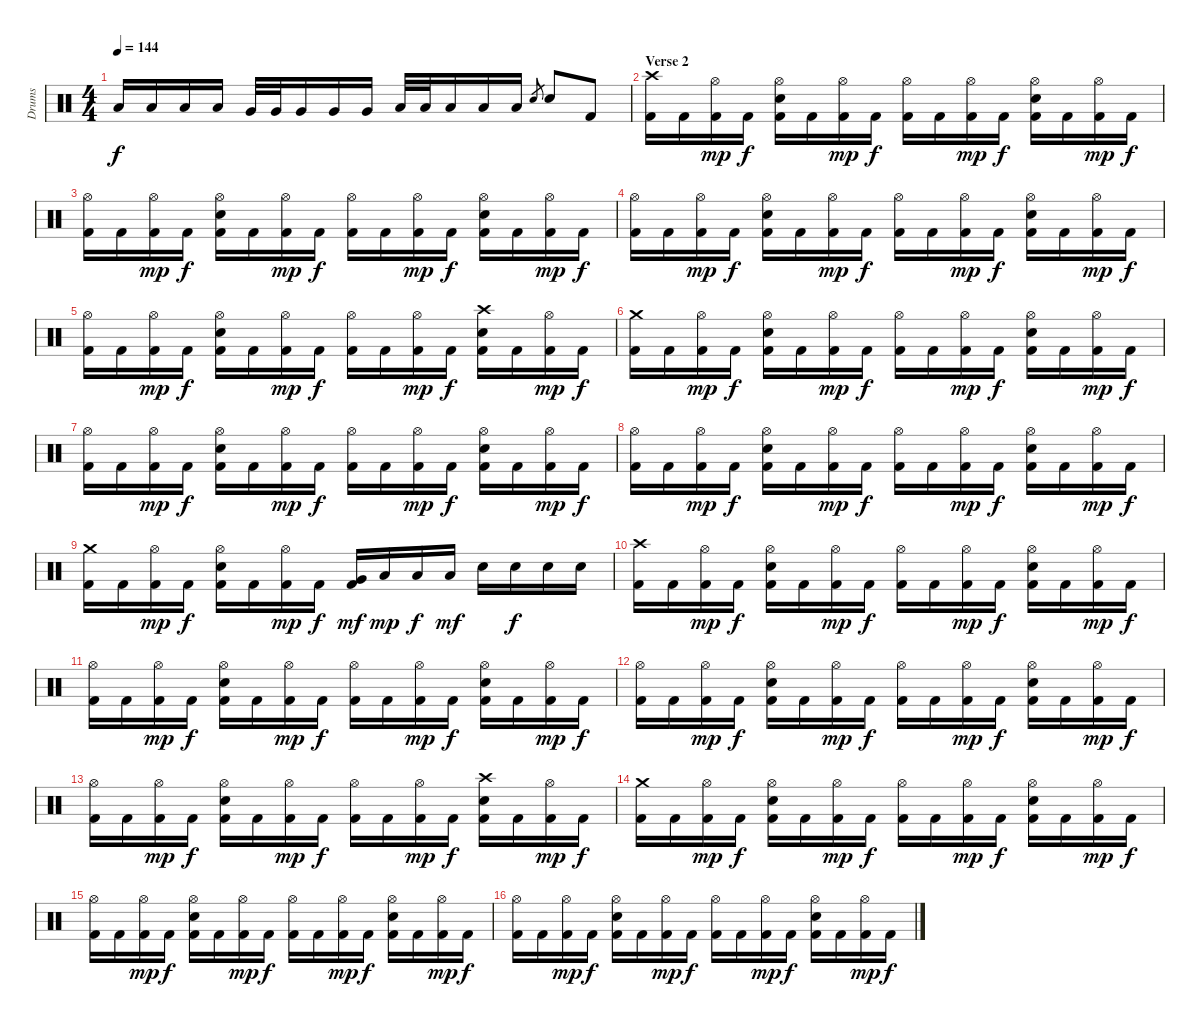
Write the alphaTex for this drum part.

\track ("Drums" "Drums") {instrument percussion}
\staff {score}
\articulation defaults
\ts (4 4)
\tempo 144
\clef neutral
\ks c "Low Tom (hit)".16{dy f} "Low Tom (hit)".16 "Low Tom (hit)".16 "Low Tom (hit)".16 "Very Low Tom (hit)".32 "Very Low Tom (hit)".32 "Very Low Tom (hit)".16 "Very Low Tom (hit)".16 "Very Low Tom (hit)".16 "Low Floor Tom (hit)".32 "Low Floor Tom (hit)".32 "Low Floor Tom (hit)".16 "Low Floor Tom (hit)".16 "Low Floor Tom (hit)".16 "Electric Snare (hit)".8{gr} "Electric Snare (hit)".8 "Kick (hit) 2".8
|
\section ("" "Verse 2")
("Kick (hit) 2" "Crash high (hit)").16 "Kick (hit) 2".16 ("Kick (hit) 2" "Hi-Hat (open)").16{dy mp} "Kick (hit) 2".16{dy f} ("Kick (hit) 2" "Electric Snare (hit)" "Hi-Hat (open)").16 "Kick (hit) 2".16 ("Kick (hit) 2" "Hi-Hat (open)").16{dy mp} "Kick (hit) 2".16{dy f} ("Kick (hit) 2" "Hi-Hat (open)").16 "Kick (hit) 2".16 ("Kick (hit) 2" "Hi-Hat (open)").16{dy mp} "Kick (hit) 2".16{dy f} ("Kick (hit) 2" "Electric Snare (hit)" "Hi-Hat (open)").16 "Kick (hit) 2".16 ("Kick (hit) 2" "Hi-Hat (open)").16{dy mp} "Kick (hit) 2".16{dy f} |
("Kick (hit) 2" "Hi-Hat (open)").16 "Kick (hit) 2".16 ("Kick (hit) 2" "Hi-Hat (open)").16{dy mp} "Kick (hit) 2".16{dy f} ("Kick (hit) 2" "Electric Snare (hit)" "Hi-Hat (open)").16 "Kick (hit) 2".16 ("Kick (hit) 2" "Hi-Hat (open)").16{dy mp} "Kick (hit) 2".16{dy f} ("Kick (hit) 2" "Hi-Hat (open)").16 "Kick (hit) 2".16 ("Kick (hit) 2" "Hi-Hat (open)").16{dy mp} "Kick (hit) 2".16{dy f} ("Kick (hit) 2" "Electric Snare (hit)" "Hi-Hat (open)").16 "Kick (hit) 2".16 ("Kick (hit) 2" "Hi-Hat (open)").16{dy mp} "Kick (hit) 2".16{dy f} |
("Kick (hit) 2" "Hi-Hat (open)").16 "Kick (hit) 2".16 ("Kick (hit) 2" "Hi-Hat (open)").16{dy mp} "Kick (hit) 2".16{dy f} ("Kick (hit) 2" "Electric Snare (hit)" "Hi-Hat (open)").16 "Kick (hit) 2".16 ("Kick (hit) 2" "Hi-Hat (open)").16{dy mp} "Kick (hit) 2".16{dy f} ("Kick (hit) 2" "Hi-Hat (open)").16 "Kick (hit) 2".16 ("Kick (hit) 2" "Hi-Hat (open)").16{dy mp} "Kick (hit) 2".16{dy f} ("Kick (hit) 2" "Electric Snare (hit)" "Hi-Hat (open)").16 "Kick (hit) 2".16 ("Kick (hit) 2" "Hi-Hat (open)").16{dy mp} "Kick (hit) 2".16{dy f} |
("Kick (hit) 2" "Hi-Hat (open)").16 "Kick (hit) 2".16 ("Kick (hit) 2" "Hi-Hat (open)").16{dy mp} "Kick (hit) 2".16{dy f} ("Kick (hit) 2" "Electric Snare (hit)" "Hi-Hat (open)").16 "Kick (hit) 2".16 ("Kick (hit) 2" "Hi-Hat (open)").16{dy mp} "Kick (hit) 2".16{dy f} ("Kick (hit) 2" "Hi-Hat (open)").16 "Kick (hit) 2".16 ("Kick (hit) 2" "Hi-Hat (open)").16{dy mp} "Kick (hit) 2".16{dy f} ("Kick (hit) 2" "Electric Snare (hit)" "Crash high (hit)").16 "Kick (hit) 2".16 ("Kick (hit) 2" "Hi-Hat (open)").16{dy mp} "Kick (hit) 2".16{dy f} |
("Kick (hit) 2" "Crash medium (hit)").16 "Kick (hit) 2".16 ("Kick (hit) 2" "Hi-Hat (open)").16{dy mp} "Kick (hit) 2".16{dy f} ("Kick (hit) 2" "Electric Snare (hit)" "Hi-Hat (open)").16 "Kick (hit) 2".16 ("Kick (hit) 2" "Hi-Hat (open)").16{dy mp} "Kick (hit) 2".16{dy f} ("Kick (hit) 2" "Hi-Hat (open)").16 "Kick (hit) 2".16 ("Kick (hit) 2" "Hi-Hat (open)").16{dy mp} "Kick (hit) 2".16{dy f} ("Kick (hit) 2" "Electric Snare (hit)" "Hi-Hat (open)").16 "Kick (hit) 2".16 ("Kick (hit) 2" "Hi-Hat (open)").16{dy mp} "Kick (hit) 2".16{dy f} |
("Kick (hit) 2" "Hi-Hat (open)").16 "Kick (hit) 2".16 ("Kick (hit) 2" "Hi-Hat (open)").16{dy mp} "Kick (hit) 2".16{dy f} ("Kick (hit) 2" "Electric Snare (hit)" "Hi-Hat (open)").16 "Kick (hit) 2".16 ("Kick (hit) 2" "Hi-Hat (open)").16{dy mp} "Kick (hit) 2".16{dy f} ("Kick (hit) 2" "Hi-Hat (open)").16 "Kick (hit) 2".16 ("Kick (hit) 2" "Hi-Hat (open)").16{dy mp} "Kick (hit) 2".16{dy f} ("Kick (hit) 2" "Electric Snare (hit)" "Hi-Hat (open)").16 "Kick (hit) 2".16 ("Kick (hit) 2" "Hi-Hat (open)").16{dy mp} "Kick (hit) 2".16{dy f} |
("Kick (hit) 2" "Hi-Hat (open)").16 "Kick (hit) 2".16 ("Kick (hit) 2" "Hi-Hat (open)").16{dy mp} "Kick (hit) 2".16{dy f} ("Kick (hit) 2" "Electric Snare (hit)" "Hi-Hat (open)").16 "Kick (hit) 2".16 ("Kick (hit) 2" "Hi-Hat (open)").16{dy mp} "Kick (hit) 2".16{dy f} ("Kick (hit) 2" "Hi-Hat (open)").16 "Kick (hit) 2".16 ("Kick (hit) 2" "Hi-Hat (open)").16{dy mp} "Kick (hit) 2".16{dy f} ("Kick (hit) 2" "Electric Snare (hit)" "Hi-Hat (open)").16 "Kick (hit) 2".16 ("Kick (hit) 2" "Hi-Hat (open)").16{dy mp} "Kick (hit) 2".16{dy f} |
("Kick (hit) 2" "Crash medium (hit)").16 "Kick (hit) 2".16 ("Kick (hit) 2" "Hi-Hat (open)").16{dy mp} "Kick (hit) 2".16{dy f} ("Kick (hit) 2" "Electric Snare (hit)" "Hi-Hat (open)").16 "Kick (hit) 2".16 ("Kick (hit) 2" "Hi-Hat (open)").16{dy mp} "Kick (hit) 2".16{dy f} ("Kick (hit) 2" "Very Low Tom (hit)").16{dy mf} "Low Tom (hit)".16{dy mp} "Low Tom (hit)".16{dy f} "Low Tom (hit)".16{dy mf} "Electric Snare (hit)".16 "Electric Snare (hit)".16{dy f} "Electric Snare (hit)".16 "Electric Snare (hit)".16 |
("Kick (hit) 2" "Crash high (hit)").16 "Kick (hit) 2".16 ("Kick (hit) 2" "Hi-Hat (open)").16{dy mp} "Kick (hit) 2".16{dy f} ("Kick (hit) 2" "Electric Snare (hit)" "Hi-Hat (open)").16 "Kick (hit) 2".16 ("Kick (hit) 2" "Hi-Hat (open)").16{dy mp} "Kick (hit) 2".16{dy f} ("Kick (hit) 2" "Hi-Hat (open)").16 "Kick (hit) 2".16 ("Kick (hit) 2" "Hi-Hat (open)").16{dy mp} "Kick (hit) 2".16{dy f} ("Kick (hit) 2" "Electric Snare (hit)" "Hi-Hat (open)").16 "Kick (hit) 2".16 ("Kick (hit) 2" "Hi-Hat (open)").16{dy mp} "Kick (hit) 2".16{dy f} |
("Kick (hit) 2" "Hi-Hat (open)").16 "Kick (hit) 2".16 ("Kick (hit) 2" "Hi-Hat (open)").16{dy mp} "Kick (hit) 2".16{dy f} ("Kick (hit) 2" "Electric Snare (hit)" "Hi-Hat (open)").16 "Kick (hit) 2".16 ("Kick (hit) 2" "Hi-Hat (open)").16{dy mp} "Kick (hit) 2".16{dy f} ("Kick (hit) 2" "Hi-Hat (open)").16 "Kick (hit) 2".16 ("Kick (hit) 2" "Hi-Hat (open)").16{dy mp} "Kick (hit) 2".16{dy f} ("Kick (hit) 2" "Electric Snare (hit)" "Hi-Hat (open)").16 "Kick (hit) 2".16 ("Kick (hit) 2" "Hi-Hat (open)").16{dy mp} "Kick (hit) 2".16{dy f} |
("Kick (hit) 2" "Hi-Hat (open)").16 "Kick (hit) 2".16 ("Kick (hit) 2" "Hi-Hat (open)").16{dy mp} "Kick (hit) 2".16{dy f} ("Kick (hit) 2" "Electric Snare (hit)" "Hi-Hat (open)").16 "Kick (hit) 2".16 ("Kick (hit) 2" "Hi-Hat (open)").16{dy mp} "Kick (hit) 2".16{dy f} ("Kick (hit) 2" "Hi-Hat (open)").16 "Kick (hit) 2".16 ("Kick (hit) 2" "Hi-Hat (open)").16{dy mp} "Kick (hit) 2".16{dy f} ("Kick (hit) 2" "Electric Snare (hit)" "Hi-Hat (open)").16 "Kick (hit) 2".16 ("Kick (hit) 2" "Hi-Hat (open)").16{dy mp} "Kick (hit) 2".16{dy f} |
("Kick (hit) 2" "Hi-Hat (open)").16 "Kick (hit) 2".16 ("Kick (hit) 2" "Hi-Hat (open)").16{dy mp} "Kick (hit) 2".16{dy f} ("Kick (hit) 2" "Electric Snare (hit)" "Hi-Hat (open)").16 "Kick (hit) 2".16 ("Kick (hit) 2" "Hi-Hat (open)").16{dy mp} "Kick (hit) 2".16{dy f} ("Kick (hit) 2" "Hi-Hat (open)").16 "Kick (hit) 2".16 ("Kick (hit) 2" "Hi-Hat (open)").16{dy mp} "Kick (hit) 2".16{dy f} ("Kick (hit) 2" "Electric Snare (hit)" "Crash high (hit)").16 "Kick (hit) 2".16 ("Kick (hit) 2" "Hi-Hat (open)").16{dy mp} "Kick (hit) 2".16{dy f} |
("Kick (hit) 2" "Crash medium (hit)").16 "Kick (hit) 2".16 ("Kick (hit) 2" "Hi-Hat (open)").16{dy mp} "Kick (hit) 2".16{dy f} ("Kick (hit) 2" "Electric Snare (hit)" "Hi-Hat (open)").16 "Kick (hit) 2".16 ("Kick (hit) 2" "Hi-Hat (open)").16{dy mp} "Kick (hit) 2".16{dy f} ("Kick (hit) 2" "Hi-Hat (open)").16 "Kick (hit) 2".16 ("Kick (hit) 2" "Hi-Hat (open)").16{dy mp} "Kick (hit) 2".16{dy f} ("Kick (hit) 2" "Electric Snare (hit)" "Hi-Hat (open)").16 "Kick (hit) 2".16 ("Kick (hit) 2" "Hi-Hat (open)").16{dy mp} "Kick (hit) 2".16{dy f} |
("Kick (hit) 2" "Hi-Hat (open)").16 "Kick (hit) 2".16 ("Kick (hit) 2" "Hi-Hat (open)").16{dy mp} "Kick (hit) 2".16{dy f} ("Kick (hit) 2" "Electric Snare (hit)" "Hi-Hat (open)").16 "Kick (hit) 2".16 ("Kick (hit) 2" "Hi-Hat (open)").16{dy mp} "Kick (hit) 2".16{dy f} ("Kick (hit) 2" "Hi-Hat (open)").16 "Kick (hit) 2".16 ("Kick (hit) 2" "Hi-Hat (open)").16{dy mp} "Kick (hit) 2".16{dy f} ("Kick (hit) 2" "Electric Snare (hit)" "Hi-Hat (open)").16 "Kick (hit) 2".16 ("Kick (hit) 2" "Hi-Hat (open)").16{dy mp} "Kick (hit) 2".16{dy f} |
("Kick (hit) 2" "Hi-Hat (open)").16 "Kick (hit) 2".16 ("Kick (hit) 2" "Hi-Hat (open)").16{dy mp} "Kick (hit) 2".16{dy f} ("Kick (hit) 2" "Electric Snare (hit)" "Hi-Hat (open)").16 "Kick (hit) 2".16 ("Kick (hit) 2" "Hi-Hat (open)").16{dy mp} "Kick (hit) 2".16{dy f} ("Kick (hit) 2" "Hi-Hat (open)").16 "Kick (hit) 2".16 ("Kick (hit) 2" "Hi-Hat (open)").16{dy mp} "Kick (hit) 2".16{dy f} ("Kick (hit) 2" "Electric Snare (hit)" "Hi-Hat (open)").16 "Kick (hit) 2".16 ("Kick (hit) 2" "Hi-Hat (open)").16{dy mp} "Kick (hit) 2".16{dy f}
